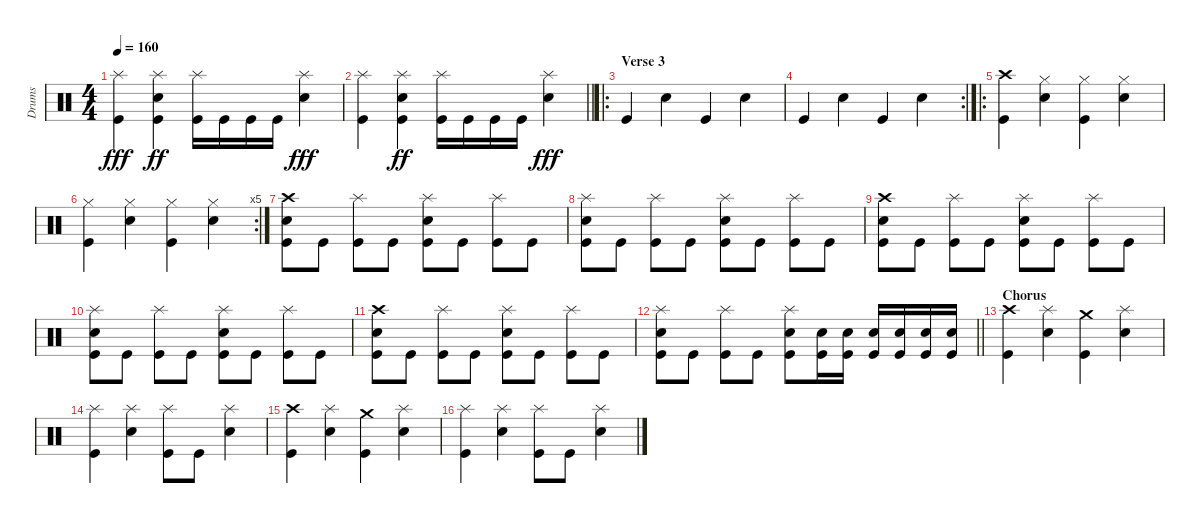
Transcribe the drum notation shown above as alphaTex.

\track ("Drums" "Drums") {instrument percussion}
\staff {score}
\articulation defaults
\ts (4 4)
\tempo 160
\clef neutral
\ks c
("Splash (hit)" "Kick (hit)").4{dy fff} ("Splash (hit)" "Electric Snare (hit)" "Kick (hit)").4{dy ff} ("Splash (hit)" "Kick (hit)").16 "Kick (hit)".16 "Kick (hit)".16 "Kick (hit)".16 ("Splash (hit)" "Electric Snare (hit)").4{dy fff} |
\barLineRight lightlight
("Splash (hit)" "Kick (hit)").4 ("Splash (hit)" "Electric Snare (hit)" "Kick (hit)").4{dy ff} ("Splash (hit)" "Kick (hit)").16 "Kick (hit)".16 "Kick (hit)".16 "Kick (hit)".16 ("Splash (hit)" "Electric Snare (hit)").4{dy fff} |
\ro
\section ("" "Verse 3")
"Kick (hit)".4 "Electric Snare (hit)".4 "Kick (hit)".4 "Electric Snare (hit)".4 |
\rc 2 "Kick (hit)".4 "Electric Snare (hit)".4 "Kick (hit)".4 "Electric Snare (hit)".4
|
\ro
("Crash high (hit)" "Kick (hit)").4 ("Hi-Hat (closed)" "Electric Snare (hit)").4 ("Hi-Hat (closed)" "Kick (hit)").4 ("Hi-Hat (closed)" "Electric Snare (hit)").4 |
\rc 5
("Hi-Hat (closed)" "Kick (hit)").4 ("Hi-Hat (closed)" "Electric Snare (hit)").4 ("Hi-Hat (closed)" "Kick (hit)").4 ("Hi-Hat (closed)" "Electric Snare (hit)").4 |
("Crash high (hit)" "Electric Snare (hit)" "Kick (hit)").8 "Kick (hit)".8 ("Splash (hit)" "Kick (hit)").8 "Kick (hit)".8 ("Splash (hit)" "Electric Snare (hit)" "Kick (hit)").8 "Kick (hit)".8 ("Splash (hit)" "Kick (hit)").8 "Kick (hit)".8 |
("Splash (hit)" "Electric Snare (hit)" "Kick (hit)").8 "Kick (hit)".8 ("Splash (hit)" "Kick (hit)").8 "Kick (hit)".8 ("Splash (hit)" "Electric Snare (hit)" "Kick (hit)").8 "Kick (hit)".8 ("Splash (hit)" "Kick (hit)").8 "Kick (hit)".8 |
("Crash high (hit)" "Electric Snare (hit)" "Kick (hit)").8 "Kick (hit)".8 ("Splash (hit)" "Kick (hit)").8 "Kick (hit)".8 ("Splash (hit)" "Electric Snare (hit)" "Kick (hit)").8 "Kick (hit)".8 ("Splash (hit)" "Kick (hit)").8 "Kick (hit)".8 |
("Splash (hit)" "Electric Snare (hit)" "Kick (hit)").8 "Kick (hit)".8 ("Splash (hit)" "Kick (hit)").8 "Kick (hit)".8 ("Splash (hit)" "Electric Snare (hit)" "Kick (hit)").8 "Kick (hit)".8 ("Splash (hit)" "Kick (hit)").8 "Kick (hit)".8 |
("Crash high (hit)" "Electric Snare (hit)" "Kick (hit)").8 "Kick (hit)".8 ("Splash (hit)" "Kick (hit)").8 "Kick (hit)".8 ("Splash (hit)" "Electric Snare (hit)" "Kick (hit)").8 "Kick (hit)".8 ("Splash (hit)" "Kick (hit)").8 "Kick (hit)".8 |
\barLineRight lightlight
("Splash (hit)" "Electric Snare (hit)" "Kick (hit)").8 "Kick (hit)".8 ("Splash (hit)" "Kick (hit)").8 "Kick (hit)".8 ("Splash (hit)" "Electric Snare (hit)" "Kick (hit)").8 ("Electric Snare (hit)" "Kick (hit)").16 ("Electric Snare (hit)" "Kick (hit)").16 ("Electric Snare (hit)" "Kick (hit)").16 ("Electric Snare (hit)" "Kick (hit)").16 ("Electric Snare (hit)" "Kick (hit)").16 ("Electric Snare (hit)" "Kick (hit)").16 |
\section ("" "Chorus")
("Crash high (hit)" "Kick (hit)").4 ("Splash (hit)" "Electric Snare (hit)").4 ("Crash medium (hit)" "Kick (hit)").4 ("Splash (hit)" "Electric Snare (hit)").4 |
("Splash (hit)" "Kick (hit)").4 ("Splash (hit)" "Electric Snare (hit)").4 ("Splash (hit)" "Kick (hit)").8 "Kick (hit)".8 ("Splash (hit)" "Electric Snare (hit)").4 |
("Crash high (hit)" "Kick (hit)").4 ("Splash (hit)" "Electric Snare (hit)").4 ("Crash medium (hit)" "Kick (hit)").4 ("Splash (hit)" "Electric Snare (hit)").4 |
("Splash (hit)" "Kick (hit)").4 ("Splash (hit)" "Electric Snare (hit)").4 ("Splash (hit)" "Kick (hit)").8 "Kick (hit)".8 ("Splash (hit)" "Electric Snare (hit)").4
